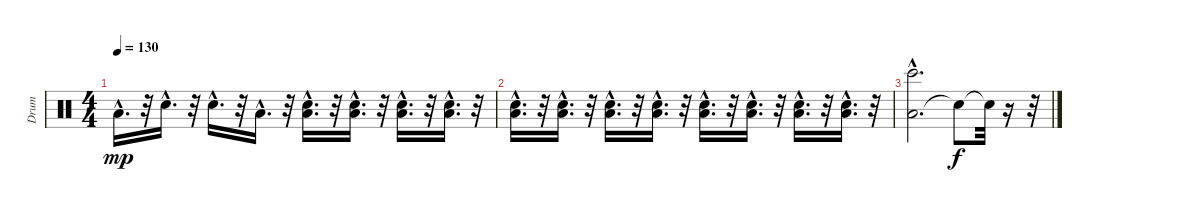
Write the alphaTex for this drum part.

\track ("Drum" "Drum") {instrument percussion}
\staff {score}
\articulation defaults
\ts (4 4)
\tempo 130
\clef neutral
\ks c "Low Tom (hit)"{hac}.16{d dy mp}
r.32 "Snare (hit) 2"{hac}.16{d} r.32 "Snare (hit) 2"{hac}.16{d} r.32 "Low Tom (hit)"{hac}.16{d} r.32 ("Low Tom (hit)"{hac} "Snare (hit) 2"{hac}).16{d} r.32 ("Low Tom (hit)"{hac} "Snare (hit) 2"{hac}).16{d} r.32 ("Low Tom (hit)"{hac} "Snare (hit) 2"{hac}).16{d} r.32 ("Low Tom (hit)"{hac} "Snare (hit) 2"{hac}).16{d} r.32 |
("Low Tom (hit)"{hac} "Snare (hit) 2"{hac}).16{d} r.32 ("Low Tom (hit)"{hac} "Snare (hit) 2"{hac}).16{d} r.32 ("Low Tom (hit)"{hac} "Snare (hit) 2"{hac}).16{d} r.32 ("Low Tom (hit)"{hac} "Snare (hit) 2"{hac}).16{d} r.32 ("Low Tom (hit)"{hac} "Snare (hit) 2"{hac}).16{d} r.32 ("Low Tom (hit)"{hac} "Snare (hit) 2"{hac}).16{d} r.32 ("Low Tom (hit)"{hac} "Snare (hit) 2"{hac}).16{d} r.32 ("Low Tom (hit)"{hac} "Snare (hit) 2"{hac}).16{d} r.32 |
("Low Tom (hit)"{hac} "Bongo High (hit)"{hac}).2{d} "Snare (hit)"{t}.8{dy f} "Snare (hit)"{t}.32 r.16 r.32
